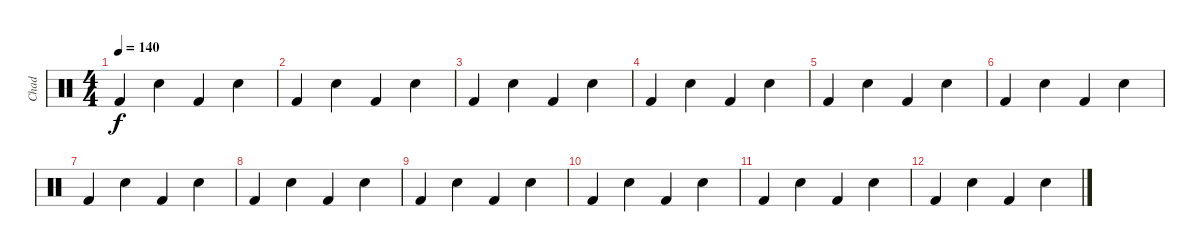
\track ("Chad" "Chad") {instrument percussion}
\staff {score}
\articulation defaults
\ts (4 4)
\tempo 140
\clef neutral
\ks c "Kick (hit) 2".4{dy f} "Electric Snare (hit)".4 "Kick (hit) 2".4 "Electric Snare (hit)".4
|
"Kick (hit) 2".4 "Electric Snare (hit)".4 "Kick (hit) 2".4 "Electric Snare (hit)".4 |
"Kick (hit) 2".4 "Electric Snare (hit)".4 "Kick (hit) 2".4 "Electric Snare (hit)".4 |
"Kick (hit) 2".4 "Electric Snare (hit)".4 "Kick (hit) 2".4 "Electric Snare (hit)".4 |
"Kick (hit) 2".4 "Electric Snare (hit)".4 "Kick (hit) 2".4 "Electric Snare (hit)".4 |
"Kick (hit) 2".4 "Electric Snare (hit)".4 "Kick (hit) 2".4 "Electric Snare (hit)".4 |
"Kick (hit) 2".4 "Electric Snare (hit)".4 "Kick (hit) 2".4 "Electric Snare (hit)".4 |
"Kick (hit) 2".4 "Electric Snare (hit)".4 "Kick (hit) 2".4 "Electric Snare (hit)".4 |
"Kick (hit) 2".4 "Electric Snare (hit)".4 "Kick (hit) 2".4 "Electric Snare (hit)".4 |
"Kick (hit) 2".4 "Electric Snare (hit)".4 "Kick (hit) 2".4 "Electric Snare (hit)".4 |
"Kick (hit) 2".4 "Electric Snare (hit)".4 "Kick (hit) 2".4 "Electric Snare (hit)".4 |
"Kick (hit) 2".4 "Electric Snare (hit)".4 "Kick (hit) 2".4 "Electric Snare (hit)".4
